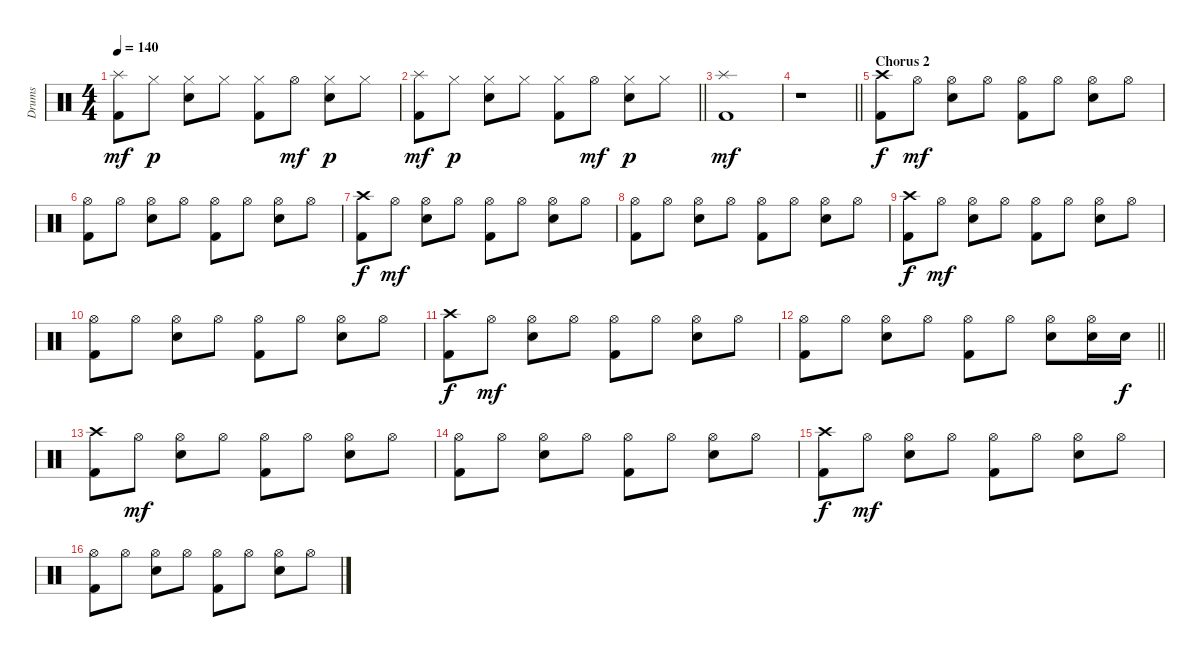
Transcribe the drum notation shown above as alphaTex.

\track ("Drums" "Drums") {instrument percussion}
\staff {score}
\articulation defaults
\ts (4 4)
\tempo 140
\clef neutral
\ks c
("Splash (hit)" "Kick (hit) 2").8{dy mf} "Hi-Hat (closed)".8{dy p} ("Hi-Hat (closed)" "Snare (hit) 2").8 "Hi-Hat (closed)".8 ("Hi-Hat (closed)" "Kick (hit) 2").8 "Hi-Hat (open)".8{dy mf} ("Hi-Hat (closed)" "Snare (hit) 2").8{dy p} "Hi-Hat (closed)".8 |
\barLineRight lightlight
("Splash (hit)" "Kick (hit) 2").8{dy mf} "Hi-Hat (closed)".8{dy p} ("Hi-Hat (closed)" "Snare (hit) 2").8 "Hi-Hat (closed)".8 ("Hi-Hat (closed)" "Kick (hit) 2").8 "Hi-Hat (open)".8{dy mf} ("Hi-Hat (closed)" "Snare (hit) 2").8{dy p} "Hi-Hat (closed)".8 |
("Splash (hit)" "Kick (hit) 2").1{dy mf} |
\barLineRight lightlight
r.1 |
\section ("" "Chorus 2")
("Crash high (hit)" "Kick (hit) 2").8{dy f} "Hi-Hat (open)".8{dy mf} ("Hi-Hat (open)" "Snare (hit) 2").8 "Hi-Hat (open)".8 ("Hi-Hat (open)" "Kick (hit) 2").8 "Hi-Hat (open)".8 ("Hi-Hat (open)" "Snare (hit) 2").8 "Hi-Hat (open)".8 |
("Hi-Hat (open)" "Kick (hit) 2").8 "Hi-Hat (open)".8 ("Hi-Hat (open)" "Snare (hit) 2").8 "Hi-Hat (open)".8 ("Hi-Hat (open)" "Kick (hit) 2").8 "Hi-Hat (open)".8 ("Hi-Hat (open)" "Snare (hit) 2").8 "Hi-Hat (open)".8 |
("Crash high (hit)" "Kick (hit) 2").8{dy f} "Hi-Hat (open)".8{dy mf} ("Hi-Hat (open)" "Snare (hit) 2").8 "Hi-Hat (open)".8 ("Hi-Hat (open)" "Kick (hit) 2").8 "Hi-Hat (open)".8 ("Hi-Hat (open)" "Snare (hit) 2").8 "Hi-Hat (open)".8 |
("Hi-Hat (open)" "Kick (hit) 2").8 "Hi-Hat (open)".8 ("Hi-Hat (open)" "Snare (hit) 2").8 "Hi-Hat (open)".8 ("Hi-Hat (open)" "Kick (hit) 2").8 "Hi-Hat (open)".8 ("Hi-Hat (open)" "Snare (hit) 2").8 "Hi-Hat (open)".8 |
("Crash high (hit)" "Kick (hit) 2").8{dy f} "Hi-Hat (open)".8{dy mf} ("Hi-Hat (open)" "Snare (hit) 2").8 "Hi-Hat (open)".8 ("Hi-Hat (open)" "Kick (hit) 2").8 "Hi-Hat (open)".8 ("Hi-Hat (open)" "Snare (hit) 2").8 "Hi-Hat (open)".8 |
("Hi-Hat (open)" "Kick (hit) 2").8 "Hi-Hat (open)".8 ("Hi-Hat (open)" "Snare (hit) 2").8 "Hi-Hat (open)".8 ("Hi-Hat (open)" "Kick (hit) 2").8 "Hi-Hat (open)".8 ("Hi-Hat (open)" "Snare (hit) 2").8 "Hi-Hat (open)".8 |
("Crash high (hit)" "Kick (hit) 2").8{dy f} "Hi-Hat (open)".8{dy mf} ("Hi-Hat (open)" "Snare (hit) 2").8 "Hi-Hat (open)".8 ("Hi-Hat (open)" "Kick (hit) 2").8 "Hi-Hat (open)".8 ("Hi-Hat (open)" "Snare (hit) 2").8 "Hi-Hat (open)".8 |
\barLineRight lightlight
("Hi-Hat (open)" "Kick (hit) 2").8 "Hi-Hat (open)".8 ("Hi-Hat (open)" "Snare (hit) 2").8 "Hi-Hat (open)".8 ("Hi-Hat (open)" "Kick (hit) 2").8 "Hi-Hat (open)".8 ("Hi-Hat (open)" "Snare (hit) 2").8 ("Hi-Hat (open)" "Snare (hit) 2").16 "Snare (hit) 2".16{dy f} |
("Crash high (hit)" "Kick (hit) 2").8 "Hi-Hat (open)".8{dy mf} ("Hi-Hat (open)" "Snare (hit) 2").8 "Hi-Hat (open)".8 ("Hi-Hat (open)" "Kick (hit) 2").8 "Hi-Hat (open)".8 ("Hi-Hat (open)" "Snare (hit) 2").8 "Hi-Hat (open)".8 |
("Hi-Hat (open)" "Kick (hit) 2").8 "Hi-Hat (open)".8 ("Hi-Hat (open)" "Snare (hit) 2").8 "Hi-Hat (open)".8 ("Hi-Hat (open)" "Kick (hit) 2").8 "Hi-Hat (open)".8 ("Hi-Hat (open)" "Snare (hit) 2").8 "Hi-Hat (open)".8 |
("Crash high (hit)" "Kick (hit) 2").8{dy f} "Hi-Hat (open)".8{dy mf} ("Hi-Hat (open)" "Snare (hit) 2").8 "Hi-Hat (open)".8 ("Hi-Hat (open)" "Kick (hit) 2").8 "Hi-Hat (open)".8 ("Hi-Hat (open)" "Snare (hit) 2").8 "Hi-Hat (open)".8 |
("Hi-Hat (open)" "Kick (hit) 2").8 "Hi-Hat (open)".8 ("Hi-Hat (open)" "Snare (hit) 2").8 "Hi-Hat (open)".8 ("Hi-Hat (open)" "Kick (hit) 2").8 "Hi-Hat (open)".8 ("Hi-Hat (open)" "Snare (hit) 2").8 "Hi-Hat (open)".8
